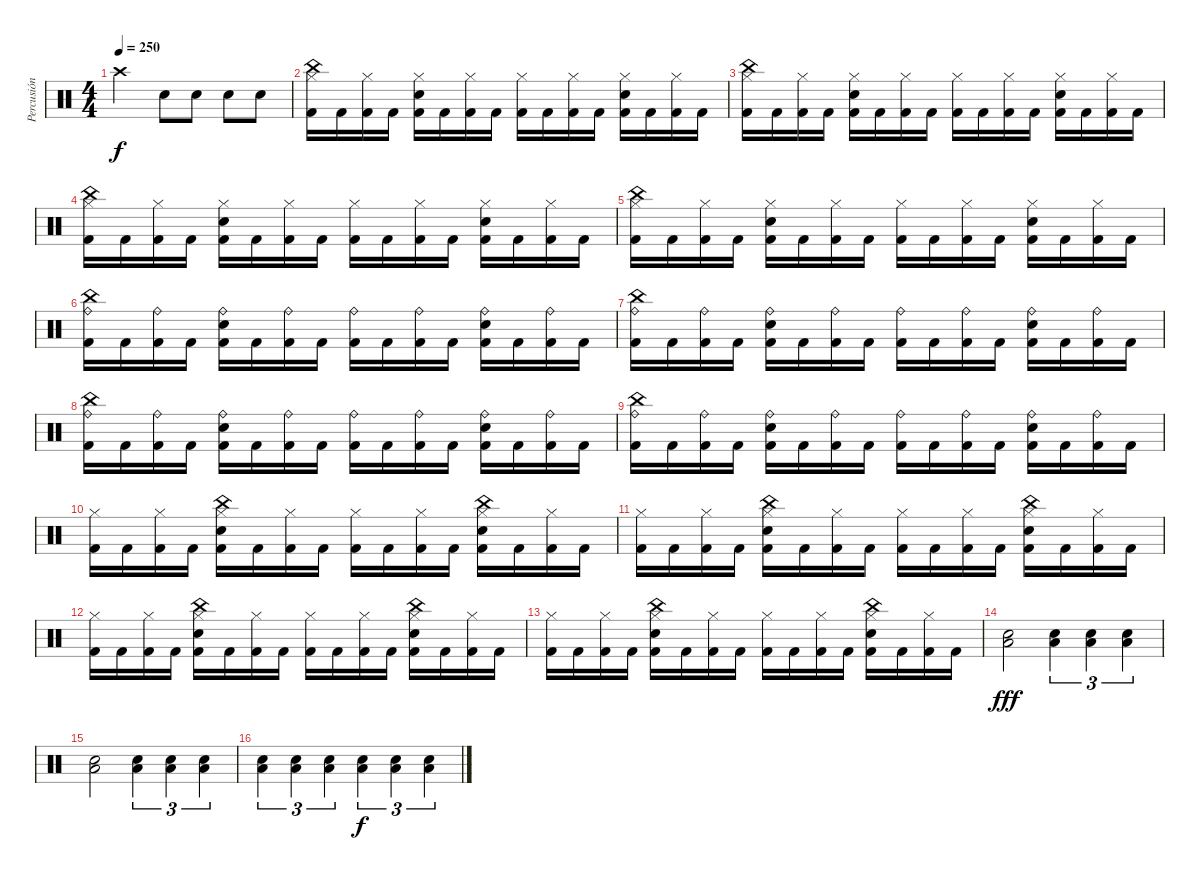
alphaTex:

\track ("Percusión" "Percusión") {instrument percussion}
\staff {score}
\articulation defaults
\ts (4 4)
\tempo 250
\clef neutral
\ks c "Crash high (hit)".2{dy f} "Electric Snare (hit)".8 "Electric Snare (hit)".8 "Electric Snare (hit)".8 "Electric Snare (hit)".8
|
("Hi-Hat (closed)" "China (hit)" "Kick (hit) 2").16 "Kick (hit) 2".16 ("Hi-Hat (closed)" "Kick (hit) 2").16 "Kick (hit) 2".16 ("Hi-Hat (closed)" "Electric Snare (hit)" "Kick (hit) 2").16 "Kick (hit) 2".16 ("Hi-Hat (closed)" "Kick (hit) 2").16 "Kick (hit) 2".16 ("Hi-Hat (closed)" "Kick (hit) 2").16 "Kick (hit) 2".16 ("Hi-Hat (closed)" "Kick (hit) 2").16 "Kick (hit) 2".16 ("Hi-Hat (closed)" "Electric Snare (hit)" "Kick (hit) 2").16 "Kick (hit) 2".16 ("Hi-Hat (closed)" "Kick (hit) 2").16 "Kick (hit) 2".16 |
("Hi-Hat (closed)" "China (hit)" "Kick (hit) 2").16 "Kick (hit) 2".16 ("Hi-Hat (closed)" "Kick (hit) 2").16 "Kick (hit) 2".16 ("Hi-Hat (closed)" "Electric Snare (hit)" "Kick (hit) 2").16 "Kick (hit) 2".16 ("Hi-Hat (closed)" "Kick (hit) 2").16 "Kick (hit) 2".16 ("Hi-Hat (closed)" "Kick (hit) 2").16 "Kick (hit) 2".16 ("Hi-Hat (closed)" "Kick (hit) 2").16 "Kick (hit) 2".16 ("Hi-Hat (closed)" "Electric Snare (hit)" "Kick (hit) 2").16 "Kick (hit) 2".16 ("Hi-Hat (closed)" "Kick (hit) 2").16 "Kick (hit) 2".16 |
("Hi-Hat (closed)" "China (hit)" "Kick (hit) 2").16 "Kick (hit) 2".16 ("Hi-Hat (closed)" "Kick (hit) 2").16 "Kick (hit) 2".16 ("Hi-Hat (closed)" "Electric Snare (hit)" "Kick (hit) 2").16 "Kick (hit) 2".16 ("Hi-Hat (closed)" "Kick (hit) 2").16 "Kick (hit) 2".16 ("Hi-Hat (closed)" "Kick (hit) 2").16 "Kick (hit) 2".16 ("Hi-Hat (closed)" "Kick (hit) 2").16 "Kick (hit) 2".16 ("Hi-Hat (closed)" "Electric Snare (hit)" "Kick (hit) 2").16 "Kick (hit) 2".16 ("Hi-Hat (closed)" "Kick (hit) 2").16 "Kick (hit) 2".16 |
("Hi-Hat (closed)" "China (hit)" "Kick (hit) 2").16 "Kick (hit) 2".16 ("Hi-Hat (closed)" "Kick (hit) 2").16 "Kick (hit) 2".16 ("Hi-Hat (closed)" "Electric Snare (hit)" "Kick (hit) 2").16 "Kick (hit) 2".16 ("Hi-Hat (closed)" "Kick (hit) 2").16 "Kick (hit) 2".16 ("Hi-Hat (closed)" "Kick (hit) 2").16 "Kick (hit) 2".16 ("Hi-Hat (closed)" "Kick (hit) 2").16 "Kick (hit) 2".16 ("Hi-Hat (closed)" "Electric Snare (hit)" "Kick (hit) 2").16 "Kick (hit) 2".16 ("Hi-Hat (closed)" "Kick (hit) 2").16 "Kick (hit) 2".16 |
("Ride (bell)" "China (hit)" "Kick (hit) 2").16 "Kick (hit) 2".16 ("Ride (bell)" "Kick (hit) 2").16 "Kick (hit) 2".16 ("Ride (bell)" "Electric Snare (hit)" "Kick (hit) 2").16 "Kick (hit) 2".16 ("Ride (bell)" "Kick (hit) 2").16 "Kick (hit) 2".16 ("Ride (bell)" "Kick (hit) 2").16 "Kick (hit) 2".16 ("Ride (bell)" "Kick (hit) 2").16 "Kick (hit) 2".16 ("Ride (bell)" "Electric Snare (hit)" "Kick (hit) 2").16 "Kick (hit) 2".16 ("Ride (bell)" "Kick (hit) 2").16 "Kick (hit) 2".16 |
("Ride (bell)" "Kick (hit) 2" "China (hit)").16 "Kick (hit) 2".16 ("Ride (bell)" "Kick (hit) 2").16 "Kick (hit) 2".16 ("Ride (bell)" "Electric Snare (hit)" "Kick (hit) 2").16 "Kick (hit) 2".16 ("Ride (bell)" "Kick (hit) 2").16 "Kick (hit) 2".16 ("Ride (bell)" "Kick (hit) 2").16 "Kick (hit) 2".16 ("Ride (bell)" "Kick (hit) 2").16 "Kick (hit) 2".16 ("Ride (bell)" "Electric Snare (hit)" "Kick (hit) 2").16 "Kick (hit) 2".16 ("Ride (bell)" "Kick (hit) 2").16 "Kick (hit) 2".16 |
("Ride (bell)" "Kick (hit) 2" "China (hit)").16 "Kick (hit) 2".16 ("Ride (bell)" "Kick (hit) 2").16 "Kick (hit) 2".16 ("Ride (bell)" "Electric Snare (hit)" "Kick (hit) 2").16 "Kick (hit) 2".16 ("Ride (bell)" "Kick (hit) 2").16 "Kick (hit) 2".16 ("Ride (bell)" "Kick (hit) 2").16 "Kick (hit) 2".16 ("Ride (bell)" "Kick (hit) 2").16 "Kick (hit) 2".16 ("Ride (bell)" "Electric Snare (hit)" "Kick (hit) 2").16 "Kick (hit) 2".16 ("Ride (bell)" "Kick (hit) 2").16 "Kick (hit) 2".16 |
("Ride (bell)" "Kick (hit) 2" "China (hit)").16 "Kick (hit) 2".16 ("Ride (bell)" "Kick (hit) 2").16 "Kick (hit) 2".16 ("Ride (bell)" "Electric Snare (hit)" "Kick (hit) 2").16 "Kick (hit) 2".16 ("Ride (bell)" "Kick (hit) 2").16 "Kick (hit) 2".16 ("Ride (bell)" "Kick (hit) 2").16 "Kick (hit) 2".16 ("Ride (bell)" "Kick (hit) 2").16 "Kick (hit) 2".16 ("Ride (bell)" "Electric Snare (hit)" "Kick (hit) 2").16 "Kick (hit) 2".16 ("Ride (bell)" "Kick (hit) 2").16 "Kick (hit) 2".16 |
("Hi-Hat (closed)" "Kick (hit) 2").16 "Kick (hit) 2".16 ("Hi-Hat (closed)" "Kick (hit) 2").16 "Kick (hit) 2".16 ("Hi-Hat (closed)" "Electric Snare (hit)" "Kick (hit) 2" "China (hit)").16 "Kick (hit) 2".16 ("Hi-Hat (closed)" "Kick (hit) 2").16 "Kick (hit) 2".16 ("Hi-Hat (closed)" "Kick (hit) 2").16 "Kick (hit) 2".16 ("Hi-Hat (closed)" "Kick (hit) 2").16 "Kick (hit) 2".16 ("Hi-Hat (closed)" "Electric Snare (hit)" "Kick (hit) 2" "China (hit)").16 "Kick (hit) 2".16 ("Hi-Hat (closed)" "Kick (hit) 2").16 "Kick (hit) 2".16 |
("Hi-Hat (closed)" "Kick (hit) 2").16 "Kick (hit) 2".16 ("Hi-Hat (closed)" "Kick (hit) 2").16 "Kick (hit) 2".16 ("Hi-Hat (closed)" "Electric Snare (hit)" "Kick (hit) 2" "China (hit)").16 "Kick (hit) 2".16 ("Hi-Hat (closed)" "Kick (hit) 2").16 "Kick (hit) 2".16 ("Hi-Hat (closed)" "Kick (hit) 2").16 "Kick (hit) 2".16 ("Hi-Hat (closed)" "Kick (hit) 2").16 "Kick (hit) 2".16 ("Hi-Hat (closed)" "Electric Snare (hit)" "Kick (hit) 2" "China (hit)").16 "Kick (hit) 2".16 ("Hi-Hat (closed)" "Kick (hit) 2").16 "Kick (hit) 2".16 |
("Hi-Hat (closed)" "Kick (hit) 2").16 "Kick (hit) 2".16 ("Hi-Hat (closed)" "Kick (hit) 2").16 "Kick (hit) 2".16 ("Hi-Hat (closed)" "Electric Snare (hit)" "Kick (hit) 2" "China (hit)").16 "Kick (hit) 2".16 ("Hi-Hat (closed)" "Kick (hit) 2").16 "Kick (hit) 2".16 ("Hi-Hat (closed)" "Kick (hit) 2").16 "Kick (hit) 2".16 ("Hi-Hat (closed)" "Kick (hit) 2").16 "Kick (hit) 2".16 ("Hi-Hat (closed)" "Electric Snare (hit)" "Kick (hit) 2" "China (hit)").16 "Kick (hit) 2".16 ("Hi-Hat (closed)" "Kick (hit) 2").16 "Kick (hit) 2".16 |
("Hi-Hat (closed)" "Kick (hit) 2").16 "Kick (hit) 2".16 ("Hi-Hat (closed)" "Kick (hit) 2").16 "Kick (hit) 2".16 ("Hi-Hat (closed)" "Electric Snare (hit)" "Kick (hit) 2" "China (hit)").16 "Kick (hit) 2".16 ("Hi-Hat (closed)" "Kick (hit) 2").16 "Kick (hit) 2".16 ("Hi-Hat (closed)" "Kick (hit) 2").16 "Kick (hit) 2".16 ("Hi-Hat (closed)" "Kick (hit) 2").16 "Kick (hit) 2".16 ("Hi-Hat (closed)" "Electric Snare (hit)" "Kick (hit) 2" "China (hit)").16 "Kick (hit) 2".16 ("Hi-Hat (closed)" "Kick (hit) 2").16 "Kick (hit) 2".16 |
("Low Floor Tom (hit)" "Electric Snare (hit)").2{dy fff} ("Low Floor Tom (hit)" "Electric Snare (hit)").4{tu (3 2)} ("Low Floor Tom (hit)" "Electric Snare (hit)").4{tu (3 2)} ("Low Floor Tom (hit)" "Electric Snare (hit)").4{tu (3 2)} |
("Low Floor Tom (hit)" "Electric Snare (hit)").2 ("Low Floor Tom (hit)" "Electric Snare (hit)").4{tu (3 2)} ("Low Floor Tom (hit)" "Electric Snare (hit)").4{tu (3 2)} ("Low Floor Tom (hit)" "Electric Snare (hit)").4{tu (3 2)} |
("Low Floor Tom (hit)" "Electric Snare (hit)").4{tu (3 2)} ("Low Floor Tom (hit)" "Electric Snare (hit)").4{tu (3 2)} ("Low Floor Tom (hit)" "Electric Snare (hit)").4{tu (3 2)} ("Low Floor Tom (hit)" "Electric Snare (hit)").4{tu (3 2) dy f} ("Low Floor Tom (hit)" "Electric Snare (hit)").4{tu (3 2)} ("Low Floor Tom (hit)" "Electric Snare (hit)").4{tu (3 2)}
